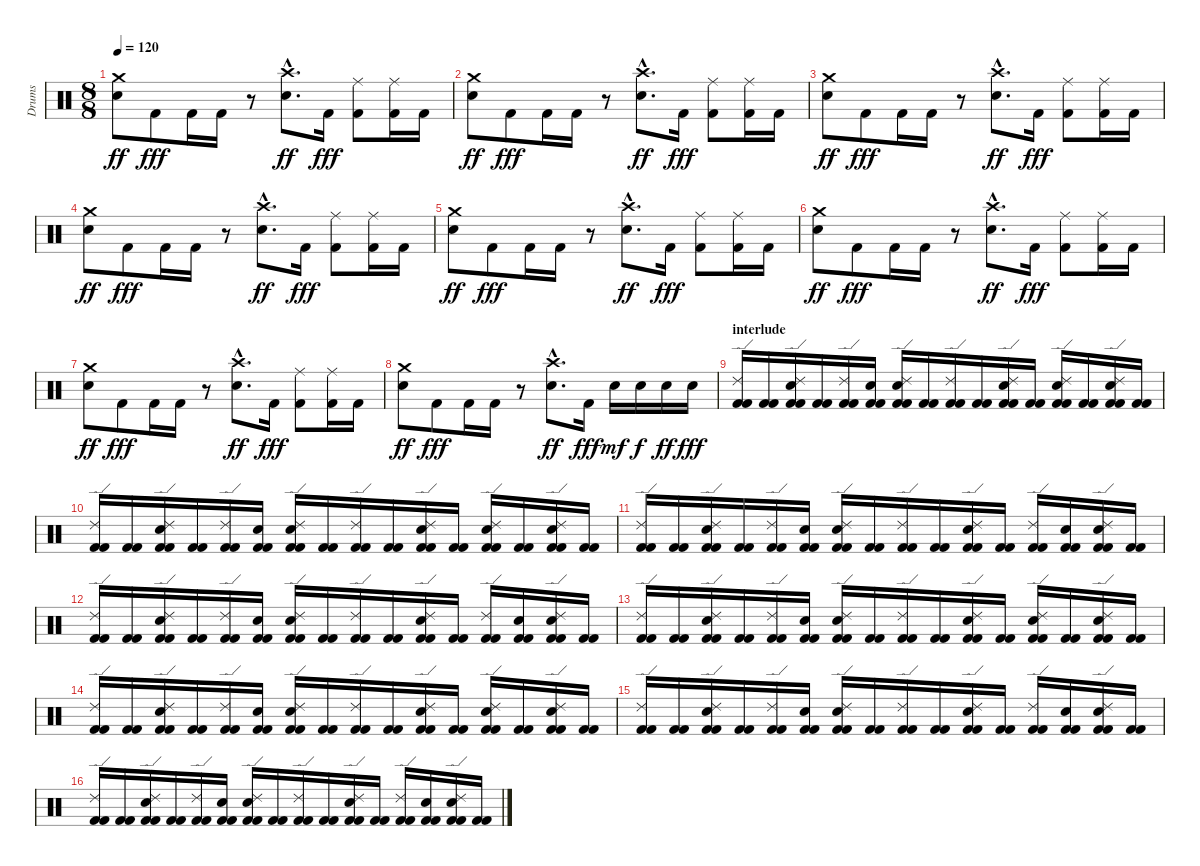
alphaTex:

\track ("Drums" "Drums") {instrument percussion}
\staff {score}
\articulation defaults
\ts (8 8)
\tempo 120
\clef neutral
\ks c
("Crash medium (hit)" "Electric Snare (hit)").8{dy ff} "Kick (hit) 2".8{dy fff} "Kick (hit) 2".16 "Kick (hit) 2".16 r.8 ("Crash high (hit)"{hac} "Electric Snare (hit)"{hac}).8{d dy ff} "Kick (hit) 2".16{dy fff} ("Ride (middle)" "Kick (hit) 2").8 ("Ride (middle)" "Kick (hit) 2").16 "Kick (hit) 2".16 |
("Crash medium (hit)" "Electric Snare (hit)").8{dy ff} "Kick (hit) 2".8{dy fff} "Kick (hit) 2".16 "Kick (hit) 2".16 r.8 ("Crash high (hit)"{hac} "Electric Snare (hit)"{hac}).8{d dy ff} "Kick (hit) 2".16{dy fff} ("Ride (middle)" "Kick (hit) 2").8 ("Ride (middle)" "Kick (hit) 2").16 "Kick (hit) 2".16 |
("Crash medium (hit)" "Electric Snare (hit)").8{dy ff} "Kick (hit) 2".8{dy fff} "Kick (hit) 2".16 "Kick (hit) 2".16 r.8 ("Crash high (hit)"{hac} "Electric Snare (hit)"{hac}).8{d dy ff} "Kick (hit) 2".16{dy fff} ("Ride (middle)" "Kick (hit) 2").8 ("Ride (middle)" "Kick (hit) 2").16 "Kick (hit) 2".16 |
("Crash medium (hit)" "Electric Snare (hit)").8{dy ff} "Kick (hit) 2".8{dy fff} "Kick (hit) 2".16 "Kick (hit) 2".16 r.8 ("Crash high (hit)"{hac} "Electric Snare (hit)"{hac}).8{d dy ff} "Kick (hit) 2".16{dy fff} ("Ride (middle)" "Kick (hit) 2").8 ("Ride (middle)" "Kick (hit) 2").16 "Kick (hit) 2".16 |
("Crash medium (hit)" "Electric Snare (hit)").8{dy ff} "Kick (hit) 2".8{dy fff} "Kick (hit) 2".16 "Kick (hit) 2".16 r.8 ("Crash high (hit)"{hac} "Electric Snare (hit)"{hac}).8{d dy ff} "Kick (hit) 2".16{dy fff} ("Ride (middle)" "Kick (hit) 2").8 ("Ride (middle)" "Kick (hit) 2").16 "Kick (hit) 2".16 |
("Crash medium (hit)" "Electric Snare (hit)").8{dy ff} "Kick (hit) 2".8{dy fff} "Kick (hit) 2".16 "Kick (hit) 2".16 r.8 ("Crash high (hit)"{hac} "Electric Snare (hit)"{hac}).8{d dy ff} "Kick (hit) 2".16{dy fff} ("Ride (middle)" "Kick (hit) 2").8 ("Ride (middle)" "Kick (hit) 2").16 "Kick (hit) 2".16 |
("Crash medium (hit)" "Electric Snare (hit)").8{dy ff} "Kick (hit) 2".8{dy fff} "Kick (hit) 2".16 "Kick (hit) 2".16 r.8 ("Crash high (hit)"{hac} "Electric Snare (hit)"{hac}).8{d dy ff} "Kick (hit) 2".16{dy fff} ("Ride (middle)" "Kick (hit) 2").8 ("Ride (middle)" "Kick (hit) 2").16 "Kick (hit) 2".16 |
("Crash medium (hit)" "Electric Snare (hit)").8{dy ff} "Kick (hit) 2".8{dy fff} "Kick (hit) 2".16 "Kick (hit) 2".16 r.8 ("Crash high (hit)"{hac} "Electric Snare (hit)"{hac}).8{d dy ff} "Kick (hit) 2".16{dy fff} "Electric Snare (hit)".16{dy mf} "Electric Snare (hit)".16{dy f} "Electric Snare (hit)".16{dy ff} "Electric Snare (hit)".16{dy fff} |
\section ("" "interlude")
("Kick (hit) 2" "Kick (hit) 2" "Ride (edge) 2").16 ("Kick (hit) 2" "Kick (hit) 2").16 ("Kick (hit) 2" "Kick (hit) 2" "Electric Snare (hit)" "Ride (edge) 2").16 ("Kick (hit) 2" "Kick (hit) 2").16 ("Kick (hit) 2" "Kick (hit) 2" "Ride (edge) 2").16 ("Kick (hit) 2" "Kick (hit) 2" "Electric Snare (hit)").16 ("Kick (hit) 2" "Kick (hit) 2" "Electric Snare (hit)" "Ride (edge) 2").16 ("Kick (hit) 2" "Kick (hit) 2").16 ("Kick (hit) 2" "Kick (hit) 2" "Ride (edge) 2").16 ("Kick (hit) 2" "Kick (hit) 2").16 ("Kick (hit) 2" "Kick (hit) 2" "Electric Snare (hit)" "Ride (edge) 2").16 ("Kick (hit) 2" "Kick (hit) 2").16 ("Kick (hit) 2" "Kick (hit) 2" "Electric Snare (hit)" "Ride (edge) 2").16 ("Kick (hit) 2" "Kick (hit) 2").16 ("Kick (hit) 2" "Kick (hit) 2" "Electric Snare (hit)" "Ride (edge) 2").16 ("Kick (hit) 2" "Kick (hit) 2").16 |
("Kick (hit) 2" "Kick (hit) 2" "Ride (edge) 2").16 ("Kick (hit) 2" "Kick (hit) 2").16 ("Kick (hit) 2" "Kick (hit) 2" "Electric Snare (hit)" "Ride (edge) 2").16 ("Kick (hit) 2" "Kick (hit) 2").16 ("Kick (hit) 2" "Kick (hit) 2" "Ride (edge) 2").16 ("Kick (hit) 2" "Kick (hit) 2" "Electric Snare (hit)").16 ("Kick (hit) 2" "Kick (hit) 2" "Electric Snare (hit)" "Ride (edge) 2").16 ("Kick (hit) 2" "Kick (hit) 2").16 ("Kick (hit) 2" "Kick (hit) 2" "Ride (edge) 2").16 ("Kick (hit) 2" "Kick (hit) 2").16 ("Kick (hit) 2" "Kick (hit) 2" "Electric Snare (hit)" "Ride (edge) 2").16 ("Kick (hit) 2" "Kick (hit) 2").16 ("Kick (hit) 2" "Kick (hit) 2" "Electric Snare (hit)" "Ride (edge) 2").16 ("Kick (hit) 2" "Kick (hit) 2").16 ("Kick (hit) 2" "Kick (hit) 2" "Electric Snare (hit)" "Ride (edge) 2").16 ("Kick (hit) 2" "Kick (hit) 2").16 |
("Kick (hit) 2" "Kick (hit) 2" "Ride (edge) 2").16 ("Kick (hit) 2" "Kick (hit) 2").16 ("Kick (hit) 2" "Kick (hit) 2" "Electric Snare (hit)" "Ride (edge) 2").16 ("Kick (hit) 2" "Kick (hit) 2").16 ("Kick (hit) 2" "Kick (hit) 2" "Ride (edge) 2").16 ("Kick (hit) 2" "Kick (hit) 2" "Electric Snare (hit)").16 ("Kick (hit) 2" "Kick (hit) 2" "Electric Snare (hit)" "Ride (edge) 2").16 ("Kick (hit) 2" "Kick (hit) 2").16 ("Kick (hit) 2" "Kick (hit) 2" "Ride (edge) 2").16 ("Kick (hit) 2" "Kick (hit) 2").16 ("Kick (hit) 2" "Kick (hit) 2" "Electric Snare (hit)" "Ride (edge) 2").16 ("Kick (hit) 2" "Kick (hit) 2").16 ("Kick (hit) 2" "Kick (hit) 2" "Ride (edge) 2").16 ("Kick (hit) 2" "Kick (hit) 2" "Electric Snare (hit)").16 ("Kick (hit) 2" "Kick (hit) 2" "Electric Snare (hit)" "Ride (edge) 2").16 ("Kick (hit) 2" "Kick (hit) 2").16 |
("Kick (hit) 2" "Kick (hit) 2" "Ride (edge) 2").16 ("Kick (hit) 2" "Kick (hit) 2").16 ("Kick (hit) 2" "Kick (hit) 2" "Electric Snare (hit)" "Ride (edge) 2").16 ("Kick (hit) 2" "Kick (hit) 2").16 ("Kick (hit) 2" "Kick (hit) 2" "Ride (edge) 2").16 ("Kick (hit) 2" "Kick (hit) 2" "Electric Snare (hit)").16 ("Kick (hit) 2" "Kick (hit) 2" "Electric Snare (hit)" "Ride (edge) 2").16 ("Kick (hit) 2" "Kick (hit) 2").16 ("Kick (hit) 2" "Kick (hit) 2" "Ride (edge) 2").16 ("Kick (hit) 2" "Kick (hit) 2").16 ("Kick (hit) 2" "Kick (hit) 2" "Electric Snare (hit)" "Ride (edge) 2").16 ("Kick (hit) 2" "Kick (hit) 2").16 ("Kick (hit) 2" "Kick (hit) 2" "Ride (edge) 2").16 ("Kick (hit) 2" "Kick (hit) 2" "Electric Snare (hit)").16 ("Kick (hit) 2" "Kick (hit) 2" "Electric Snare (hit)" "Ride (edge) 2").16 ("Kick (hit) 2" "Kick (hit) 2").16 |
("Kick (hit) 2" "Kick (hit) 2" "Ride (edge) 2").16 ("Kick (hit) 2" "Kick (hit) 2").16 ("Kick (hit) 2" "Kick (hit) 2" "Electric Snare (hit)" "Ride (edge) 2").16 ("Kick (hit) 2" "Kick (hit) 2").16 ("Kick (hit) 2" "Kick (hit) 2" "Ride (edge) 2").16 ("Kick (hit) 2" "Kick (hit) 2" "Electric Snare (hit)").16 ("Kick (hit) 2" "Kick (hit) 2" "Electric Snare (hit)" "Ride (edge) 2").16 ("Kick (hit) 2" "Kick (hit) 2").16 ("Kick (hit) 2" "Kick (hit) 2" "Ride (edge) 2").16 ("Kick (hit) 2" "Kick (hit) 2").16 ("Kick (hit) 2" "Kick (hit) 2" "Electric Snare (hit)" "Ride (edge) 2").16 ("Kick (hit) 2" "Kick (hit) 2").16 ("Kick (hit) 2" "Kick (hit) 2" "Electric Snare (hit)" "Ride (edge) 2").16 ("Kick (hit) 2" "Kick (hit) 2").16 ("Kick (hit) 2" "Kick (hit) 2" "Electric Snare (hit)" "Ride (edge) 2").16 ("Kick (hit) 2" "Kick (hit) 2").16 |
("Kick (hit) 2" "Kick (hit) 2" "Ride (edge) 2").16 ("Kick (hit) 2" "Kick (hit) 2").16 ("Kick (hit) 2" "Kick (hit) 2" "Electric Snare (hit)" "Ride (edge) 2").16 ("Kick (hit) 2" "Kick (hit) 2").16 ("Kick (hit) 2" "Kick (hit) 2" "Ride (edge) 2").16 ("Kick (hit) 2" "Kick (hit) 2" "Electric Snare (hit)").16 ("Kick (hit) 2" "Kick (hit) 2" "Electric Snare (hit)" "Ride (edge) 2").16 ("Kick (hit) 2" "Kick (hit) 2").16 ("Kick (hit) 2" "Kick (hit) 2" "Ride (edge) 2").16 ("Kick (hit) 2" "Kick (hit) 2").16 ("Kick (hit) 2" "Kick (hit) 2" "Electric Snare (hit)" "Ride (edge) 2").16 ("Kick (hit) 2" "Kick (hit) 2").16 ("Kick (hit) 2" "Kick (hit) 2" "Electric Snare (hit)" "Ride (edge) 2").16 ("Kick (hit) 2" "Kick (hit) 2").16 ("Kick (hit) 2" "Kick (hit) 2" "Electric Snare (hit)" "Ride (edge) 2").16 ("Kick (hit) 2" "Kick (hit) 2").16 |
("Kick (hit) 2" "Kick (hit) 2" "Ride (edge) 2").16 ("Kick (hit) 2" "Kick (hit) 2").16 ("Kick (hit) 2" "Kick (hit) 2" "Electric Snare (hit)" "Ride (edge) 2").16 ("Kick (hit) 2" "Kick (hit) 2").16 ("Kick (hit) 2" "Kick (hit) 2" "Ride (edge) 2").16 ("Kick (hit) 2" "Kick (hit) 2" "Electric Snare (hit)").16 ("Kick (hit) 2" "Kick (hit) 2" "Electric Snare (hit)" "Ride (edge) 2").16 ("Kick (hit) 2" "Kick (hit) 2").16 ("Kick (hit) 2" "Kick (hit) 2" "Ride (edge) 2").16 ("Kick (hit) 2" "Kick (hit) 2").16 ("Kick (hit) 2" "Kick (hit) 2" "Electric Snare (hit)" "Ride (edge) 2").16 ("Kick (hit) 2" "Kick (hit) 2").16 ("Kick (hit) 2" "Kick (hit) 2" "Ride (edge) 2").16 ("Kick (hit) 2" "Kick (hit) 2" "Electric Snare (hit)").16 ("Kick (hit) 2" "Kick (hit) 2" "Electric Snare (hit)" "Ride (edge) 2").16 ("Kick (hit) 2" "Kick (hit) 2").16 |
("Kick (hit) 2" "Kick (hit) 2" "Ride (edge) 2").16 ("Kick (hit) 2" "Kick (hit) 2").16 ("Kick (hit) 2" "Kick (hit) 2" "Electric Snare (hit)" "Ride (edge) 2").16 ("Kick (hit) 2" "Kick (hit) 2").16 ("Kick (hit) 2" "Kick (hit) 2" "Ride (edge) 2").16 ("Kick (hit) 2" "Kick (hit) 2" "Electric Snare (hit)").16 ("Kick (hit) 2" "Kick (hit) 2" "Electric Snare (hit)" "Ride (edge) 2").16 ("Kick (hit) 2" "Kick (hit) 2").16 ("Kick (hit) 2" "Kick (hit) 2" "Ride (edge) 2").16 ("Kick (hit) 2" "Kick (hit) 2").16 ("Kick (hit) 2" "Kick (hit) 2" "Electric Snare (hit)" "Ride (edge) 2").16 ("Kick (hit) 2" "Kick (hit) 2").16 ("Kick (hit) 2" "Kick (hit) 2" "Ride (edge) 2").16 ("Kick (hit) 2" "Kick (hit) 2" "Electric Snare (hit)").16 ("Kick (hit) 2" "Kick (hit) 2" "Electric Snare (hit)" "Ride (edge) 2").16 ("Kick (hit) 2" "Kick (hit) 2").16
